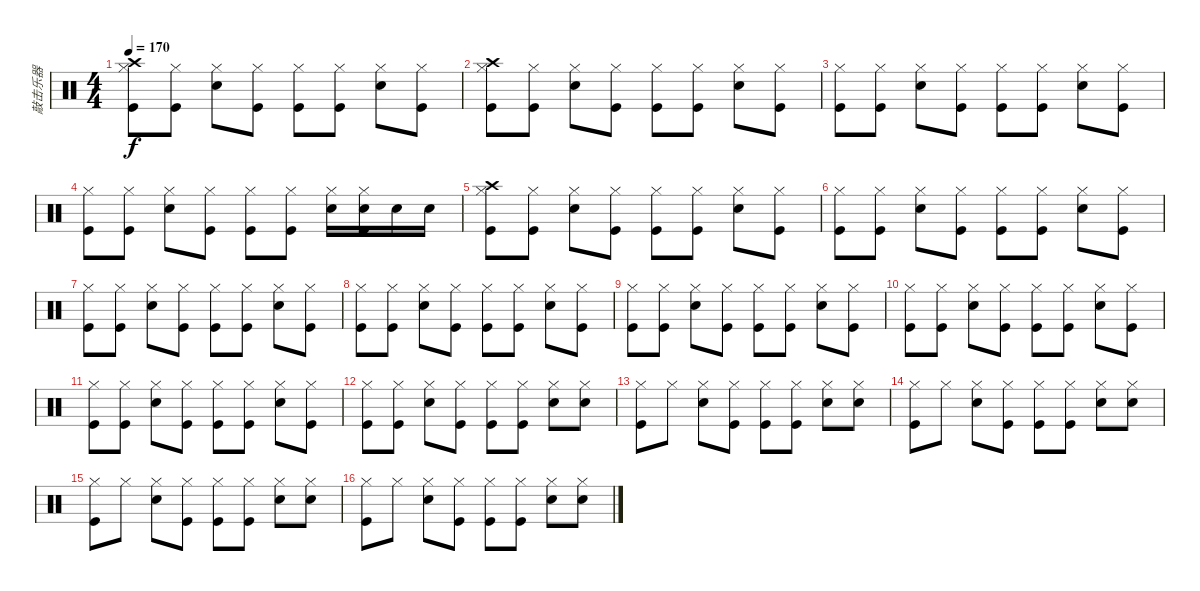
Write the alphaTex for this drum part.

\track ("敲击乐器" "敲击乐器") {instrument percussion}
\staff {score}
\articulation defaults
\ts (4 4)
\tempo 170
\clef neutral
\ks c
("Crash high (hit)" "Hi-Hat (closed)" "Kick (hit)").8{dy f} ("Hi-Hat (closed)" "Kick (hit)").8 ("Hi-Hat (closed)" "Snare (hit) 2").8 ("Hi-Hat (closed)" "Kick (hit)").8 ("Hi-Hat (closed)" "Kick (hit)").8 ("Hi-Hat (closed)" "Kick (hit)").8 ("Hi-Hat (closed)" "Snare (hit) 2").8 ("Hi-Hat (closed)" "Kick (hit)").8 |
("Crash high (hit)" "Hi-Hat (closed)" "Kick (hit)").8 ("Hi-Hat (closed)" "Kick (hit)").8 ("Hi-Hat (closed)" "Snare (hit) 2").8 ("Hi-Hat (closed)" "Kick (hit)").8 ("Hi-Hat (closed)" "Kick (hit)").8 ("Hi-Hat (closed)" "Kick (hit)").8 ("Hi-Hat (closed)" "Snare (hit) 2").8 ("Hi-Hat (closed)" "Kick (hit)").8 |
("Hi-Hat (closed)" "Kick (hit)").8 ("Hi-Hat (closed)" "Kick (hit)").8 ("Hi-Hat (closed)" "Snare (hit) 2").8 ("Hi-Hat (closed)" "Kick (hit)").8 ("Hi-Hat (closed)" "Kick (hit)").8 ("Hi-Hat (closed)" "Kick (hit)").8 ("Hi-Hat (closed)" "Snare (hit) 2").8 ("Hi-Hat (closed)" "Kick (hit)").8 |
("Hi-Hat (closed)" "Kick (hit)").8 ("Hi-Hat (closed)" "Kick (hit)").8 ("Hi-Hat (closed)" "Snare (hit) 2").8 ("Hi-Hat (closed)" "Kick (hit)").8 ("Hi-Hat (closed)" "Kick (hit)").8 ("Hi-Hat (closed)" "Kick (hit)").8 ("Hi-Hat (closed)" "Snare (hit) 2").16 ("Hi-Hat (closed)" "Snare (hit) 2" "Kick (hit)").16 "Snare (hit) 2".16 "Snare (hit) 2".16 |
("Crash high (hit)" "Hi-Hat (closed)" "Kick (hit)").8 ("Hi-Hat (closed)" "Kick (hit)").8 ("Hi-Hat (closed)" "Snare (hit) 2").8 ("Hi-Hat (closed)" "Kick (hit)").8 ("Hi-Hat (closed)" "Kick (hit)").8 ("Hi-Hat (closed)" "Kick (hit)").8 ("Hi-Hat (closed)" "Snare (hit) 2").8 ("Hi-Hat (closed)" "Kick (hit)").8 |
("Hi-Hat (closed)" "Kick (hit)").8 ("Hi-Hat (closed)" "Kick (hit)").8 ("Hi-Hat (closed)" "Snare (hit) 2").8 ("Hi-Hat (closed)" "Kick (hit)").8 ("Hi-Hat (closed)" "Kick (hit)").8 ("Hi-Hat (closed)" "Kick (hit)").8 ("Hi-Hat (closed)" "Snare (hit) 2").8 ("Hi-Hat (closed)" "Kick (hit)").8 |
("Hi-Hat (closed)" "Kick (hit)").8 ("Hi-Hat (closed)" "Kick (hit)").8 ("Hi-Hat (closed)" "Snare (hit) 2").8 ("Hi-Hat (closed)" "Kick (hit)").8 ("Hi-Hat (closed)" "Kick (hit)").8 ("Hi-Hat (closed)" "Kick (hit)").8 ("Hi-Hat (closed)" "Snare (hit) 2").8 ("Hi-Hat (closed)" "Kick (hit)").8 |
("Hi-Hat (closed)" "Kick (hit)").8 ("Hi-Hat (closed)" "Kick (hit)").8 ("Hi-Hat (closed)" "Snare (hit) 2").8 ("Hi-Hat (closed)" "Kick (hit)").8 ("Hi-Hat (closed)" "Kick (hit)").8 ("Hi-Hat (closed)" "Kick (hit)").8 ("Hi-Hat (closed)" "Snare (hit) 2").8 ("Hi-Hat (closed)" "Kick (hit)").8 |
("Hi-Hat (closed)" "Kick (hit)").8 ("Hi-Hat (closed)" "Kick (hit)").8 ("Hi-Hat (closed)" "Snare (hit) 2").8 ("Hi-Hat (closed)" "Kick (hit)").8 ("Hi-Hat (closed)" "Kick (hit)").8 ("Hi-Hat (closed)" "Kick (hit)").8 ("Hi-Hat (closed)" "Snare (hit) 2").8 ("Hi-Hat (closed)" "Kick (hit)").8 |
("Hi-Hat (closed)" "Kick (hit)").8 ("Hi-Hat (closed)" "Kick (hit)").8 ("Hi-Hat (closed)" "Snare (hit) 2").8 ("Hi-Hat (closed)" "Kick (hit)").8 ("Hi-Hat (closed)" "Kick (hit)").8 ("Hi-Hat (closed)" "Kick (hit)").8 ("Hi-Hat (closed)" "Snare (hit) 2").8 ("Hi-Hat (closed)" "Kick (hit)").8 |
("Hi-Hat (closed)" "Kick (hit)").8 ("Hi-Hat (closed)" "Kick (hit)").8 ("Hi-Hat (closed)" "Snare (hit) 2").8 ("Hi-Hat (closed)" "Kick (hit)").8 ("Hi-Hat (closed)" "Kick (hit)").8 ("Hi-Hat (closed)" "Kick (hit)").8 ("Hi-Hat (closed)" "Snare (hit) 2").8 ("Hi-Hat (closed)" "Kick (hit)").8 |
("Hi-Hat (closed)" "Kick (hit)").8 ("Hi-Hat (closed)" "Kick (hit)").8 ("Hi-Hat (closed)" "Snare (hit) 2").8 ("Hi-Hat (closed)" "Kick (hit)").8 ("Hi-Hat (closed)" "Kick (hit)").8 ("Hi-Hat (closed)" "Kick (hit)").8 ("Hi-Hat (closed)" "Snare (hit) 2").8 ("Hi-Hat (closed)" "Snare (hit) 2").8 |
("Hi-Hat (closed)" "Kick (hit)").8 "Hi-Hat (closed)".8 ("Hi-Hat (closed)" "Snare (hit) 2").8 ("Hi-Hat (closed)" "Kick (hit)").8 ("Hi-Hat (closed)" "Kick (hit)").8 ("Hi-Hat (closed)" "Kick (hit)").8 ("Hi-Hat (closed)" "Snare (hit) 2").8 ("Hi-Hat (closed)" "Snare (hit) 2").8 |
("Hi-Hat (closed)" "Kick (hit)").8 "Hi-Hat (closed)".8 ("Hi-Hat (closed)" "Snare (hit) 2").8 ("Hi-Hat (closed)" "Kick (hit)").8 ("Hi-Hat (closed)" "Kick (hit)").8 ("Hi-Hat (closed)" "Kick (hit)").8 ("Hi-Hat (closed)" "Snare (hit) 2").8 ("Hi-Hat (closed)" "Snare (hit) 2").8 |
("Hi-Hat (closed)" "Kick (hit)").8 "Hi-Hat (closed)".8 ("Hi-Hat (closed)" "Snare (hit) 2").8 ("Hi-Hat (closed)" "Kick (hit)").8 ("Hi-Hat (closed)" "Kick (hit)").8 ("Hi-Hat (closed)" "Kick (hit)").8 ("Hi-Hat (closed)" "Snare (hit) 2").8 ("Hi-Hat (closed)" "Snare (hit) 2").8 |
("Hi-Hat (closed)" "Kick (hit)").8 "Hi-Hat (closed)".8 ("Hi-Hat (closed)" "Snare (hit) 2").8 ("Hi-Hat (closed)" "Kick (hit)").8 ("Hi-Hat (closed)" "Kick (hit)").8 ("Hi-Hat (closed)" "Kick (hit)").8 ("Hi-Hat (closed)" "Snare (hit) 2").8 ("Hi-Hat (closed)" "Snare (hit) 2").8
